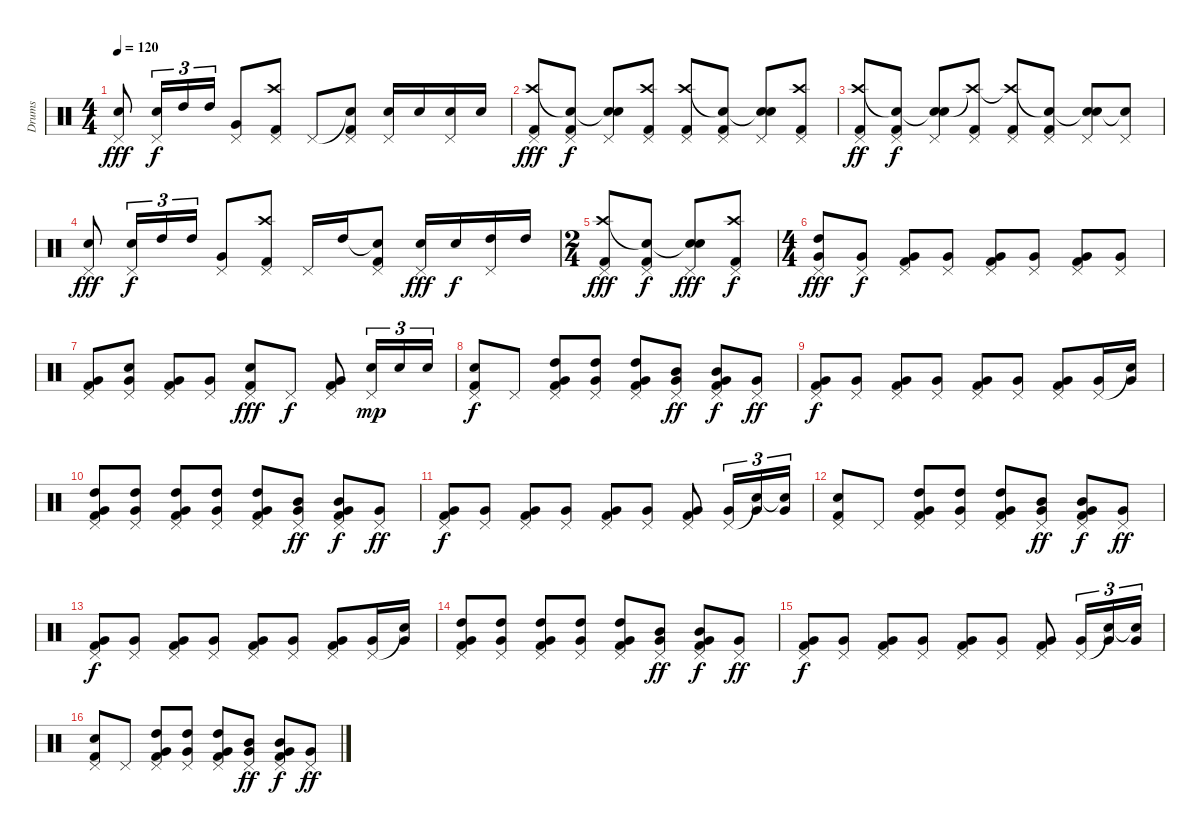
\track ("Drums" "Drums") {instrument percussion}
\staff {score}
\articulation defaults
\ts (4 4)
\tempo 120
\clef neutral
\ks c
("Pedal Hi-Hat (hit)" "Electric Snare (hit)").8{dy fff} ("Pedal Hi-Hat (hit)" "Electric Snare (hit)").16{tu (3 2) dy f} "High Tom (hit)".16{tu (3 2)} "High Tom (hit)".16{tu (3 2)} ("Pedal Hi-Hat (hit)" "Very Low Tom (hit)").8 ("Crash high (hit)" "Pedal Hi-Hat (hit)" "Kick (hit) 2").8 "Pedal Hi-Hat (hit)".8 ("Snare (hit)"{t} "Pedal Hi-Hat (hit)" "Kick (hit) 2").8 ("Pedal Hi-Hat (hit)" "Electric Snare (hit)").16 "Electric Snare (hit)".16 ("Pedal Hi-Hat (hit)" "Electric Snare (hit)").16 "Electric Snare (hit)".16 |
("Crash high (hit)" "Pedal Hi-Hat (hit)" "Kick (hit) 2").8{dy fff} ("Snare (hit)"{t} "Pedal Hi-Hat (hit)" "Kick (hit) 2").8{dy f} ("Snare (hit)"{t} "Pedal Hi-Hat (hit)" "Electric Snare (hit)").8 ("Crash high (hit)" "Pedal Hi-Hat (hit)" "Kick (hit) 2").8 ("Crash high (hit)" "Pedal Hi-Hat (hit)" "Kick (hit) 2").8 ("Snare (hit)"{t} "Pedal Hi-Hat (hit)" "Kick (hit) 2").8 ("Snare (hit)"{t} "Pedal Hi-Hat (hit)" "Electric Snare (hit)").8 ("Crash high (hit)" "Pedal Hi-Hat (hit)" "Kick (hit) 2").8 |
("Crash high (hit)" "Pedal Hi-Hat (hit)" "Kick (hit) 2").8{dy ff} ("Snare (hit)"{t} "Pedal Hi-Hat (hit)" "Kick (hit) 2").8{dy f} ("Snare (hit)"{t} "Pedal Hi-Hat (hit)" "Electric Snare (hit)").8 ("Crash high (hit)"{t} "Pedal Hi-Hat (hit)" "Kick (hit) 2").8 ("Crash high (hit)"{t} "Pedal Hi-Hat (hit)" "Kick (hit) 2").8 ("Snare (hit)"{t} "Pedal Hi-Hat (hit)" "Kick (hit) 2").8 ("Snare (hit)"{t} "Pedal Hi-Hat (hit)" "Electric Snare (hit)").8 ("Snare (hit)"{t} "Pedal Hi-Hat (hit)").8 |
("Pedal Hi-Hat (hit)" "Electric Snare (hit)").8{dy fff} ("Pedal Hi-Hat (hit)" "Electric Snare (hit)").16{tu (3 2) dy f} "High Tom (hit)".16{tu (3 2)} "High Tom (hit)".16{tu (3 2)} ("Pedal Hi-Hat (hit)" "Very Low Tom (hit)").8 ("Crash high (hit)" "Pedal Hi-Hat (hit)" "Kick (hit) 2").8 "Pedal Hi-Hat (hit)".16 "High Tom (hit)".16 ("Snare (hit)"{t} "Pedal Hi-Hat (hit)" "Kick (hit) 2").8 ("Pedal Hi-Hat (hit)" "Electric Snare (hit)").16{dy fff} "Electric Snare (hit)".16{dy f} ("Pedal Hi-Hat (hit)" "High Tom (hit)").16 "High Tom (hit)".16 |
\ts (2 4)
("Crash high (hit)" "Pedal Hi-Hat (hit)" "Kick (hit) 2").8{dy fff} ("Snare (hit)"{t} "Pedal Hi-Hat (hit)" "Kick (hit) 2").8{dy f} ("Snare (hit)"{t} "Pedal Hi-Hat (hit)" "Electric Snare (hit)").8{dy fff} ("Crash high (hit)" "Pedal Hi-Hat (hit)" "Kick (hit) 2").8{dy f} |
\ts (4 4)
("Pedal Hi-Hat (hit)" "High Tom (hit)" "Very Low Tom (hit)").8{dy fff} ("Pedal Hi-Hat (hit)" "Very Low Tom (hit)").8{dy f} ("Pedal Hi-Hat (hit)" "Very Low Tom (hit)" "Kick (hit) 2").8 ("Pedal Hi-Hat (hit)" "Very Low Tom (hit)").8 ("Pedal Hi-Hat (hit)" "Very Low Tom (hit)" "Kick (hit) 2").8 ("Pedal Hi-Hat (hit)" "Very Low Tom (hit)").8 ("Pedal Hi-Hat (hit)" "Very Low Tom (hit)" "Kick (hit) 2").8 ("Pedal Hi-Hat (hit)" "Very Low Tom (hit)").8 |
("Pedal Hi-Hat (hit)" "Very Low Tom (hit)" "Kick (hit) 2").8 ("Pedal Hi-Hat (hit)" "Electric Snare (hit)" "Very Low Tom (hit)").8 ("Pedal Hi-Hat (hit)" "Very Low Tom (hit)" "Kick (hit) 2").8 ("Pedal Hi-Hat (hit)" "Very Low Tom (hit)").8 ("Pedal Hi-Hat (hit)" "Electric Snare (hit)" "Kick (hit) 2").8{dy fff} "Pedal Hi-Hat (hit)".8{dy f} ("Pedal Hi-Hat (hit)" "Very Low Tom (hit)" "Kick (hit) 2").8 ("Pedal Hi-Hat (hit)" "Electric Snare (hit)").16{tu (3 2) dy mp} "Electric Snare (hit)".16{tu (3 2)} "Electric Snare (hit)".16{tu (3 2)} |
("Pedal Hi-Hat (hit)" "Electric Snare (hit)" "Kick (hit) 2").8{dy f} "Pedal Hi-Hat (hit)".8 ("Pedal Hi-Hat (hit)" "High Tom (hit)" "Very Low Tom (hit)" "Kick (hit) 2").8 ("Pedal Hi-Hat (hit)" "High Tom (hit)" "Very Low Tom (hit)").8 ("Pedal Hi-Hat (hit)" "High Tom (hit)" "Very Low Tom (hit)" "Kick (hit) 2").8 ("Pedal Hi-Hat (hit)" "Mid Tom (hit)" "Very Low Tom (hit)").8{dy ff} ("Pedal Hi-Hat (hit)" "Mid Tom (hit)" "Very Low Tom (hit)" "Kick (hit) 2").8{dy f} ("Pedal Hi-Hat (hit)" "Very Low Tom (hit)").8{dy ff} |
("Pedal Hi-Hat (hit)" "Very Low Tom (hit)" "Kick (hit) 2").8{dy f} ("Pedal Hi-Hat (hit)" "Very Low Tom (hit)").8 ("Pedal Hi-Hat (hit)" "Very Low Tom (hit)" "Kick (hit) 2").8 ("Pedal Hi-Hat (hit)" "Very Low Tom (hit)").8 ("Pedal Hi-Hat (hit)" "Very Low Tom (hit)" "Kick (hit) 2").8 ("Pedal Hi-Hat (hit)" "Very Low Tom (hit)").8 ("Pedal Hi-Hat (hit)" "Very Low Tom (hit)" "Kick (hit) 2").8 ("Pedal Hi-Hat (hit)" "Very Low Tom (hit)").16 ("Snare (hit)"{t} "Very Low Tom (hit)").16 |
("Pedal Hi-Hat (hit)" "High Tom (hit)" "Very Low Tom (hit)" "Kick (hit) 2").8 ("Pedal Hi-Hat (hit)" "High Tom (hit)" "Very Low Tom (hit)").8 ("Pedal Hi-Hat (hit)" "High Tom (hit)" "Very Low Tom (hit)" "Kick (hit) 2").8 ("Pedal Hi-Hat (hit)" "High Tom (hit)" "Very Low Tom (hit)").8 ("Pedal Hi-Hat (hit)" "High Tom (hit)" "Very Low Tom (hit)" "Kick (hit) 2").8 ("Pedal Hi-Hat (hit)" "Mid Tom (hit)" "Very Low Tom (hit)").8{dy ff} ("Pedal Hi-Hat (hit)" "Mid Tom (hit)" "Very Low Tom (hit)" "Kick (hit) 2").8{dy f} ("Pedal Hi-Hat (hit)" "Very Low Tom (hit)").8{dy ff} |
("Pedal Hi-Hat (hit)" "Very Low Tom (hit)" "Kick (hit) 2").8{dy f} ("Pedal Hi-Hat (hit)" "Very Low Tom (hit)").8 ("Pedal Hi-Hat (hit)" "Very Low Tom (hit)" "Kick (hit) 2").8 ("Pedal Hi-Hat (hit)" "Very Low Tom (hit)").8 ("Pedal Hi-Hat (hit)" "Very Low Tom (hit)" "Kick (hit) 2").8 ("Pedal Hi-Hat (hit)" "Very Low Tom (hit)").8 ("Pedal Hi-Hat (hit)" "Very Low Tom (hit)" "Kick (hit) 2").8 ("Pedal Hi-Hat (hit)" "Very Low Tom (hit)").16{tu (3 2)} ("Snare (hit)"{t} "Very Low Tom (hit)").16{tu (3 2)} ("Snare (hit)"{t} "Very Low Tom (hit)").16{tu (3 2)} |
("Pedal Hi-Hat (hit)" "Electric Snare (hit)" "Kick (hit) 2").8 "Pedal Hi-Hat (hit)".8 ("Pedal Hi-Hat (hit)" "High Tom (hit)" "Very Low Tom (hit)" "Kick (hit) 2").8 ("Pedal Hi-Hat (hit)" "High Tom (hit)" "Very Low Tom (hit)").8 ("Pedal Hi-Hat (hit)" "High Tom (hit)" "Very Low Tom (hit)" "Kick (hit) 2").8 ("Pedal Hi-Hat (hit)" "Mid Tom (hit)" "Very Low Tom (hit)").8{dy ff} ("Pedal Hi-Hat (hit)" "Mid Tom (hit)" "Very Low Tom (hit)" "Kick (hit) 2").8{dy f} ("Pedal Hi-Hat (hit)" "Very Low Tom (hit)").8{dy ff} |
("Pedal Hi-Hat (hit)" "Very Low Tom (hit)" "Kick (hit) 2").8{dy f} ("Pedal Hi-Hat (hit)" "Very Low Tom (hit)").8 ("Pedal Hi-Hat (hit)" "Very Low Tom (hit)" "Kick (hit) 2").8 ("Pedal Hi-Hat (hit)" "Very Low Tom (hit)").8 ("Pedal Hi-Hat (hit)" "Very Low Tom (hit)" "Kick (hit) 2").8 ("Pedal Hi-Hat (hit)" "Very Low Tom (hit)").8 ("Pedal Hi-Hat (hit)" "Very Low Tom (hit)" "Kick (hit) 2").8 ("Pedal Hi-Hat (hit)" "Very Low Tom (hit)").16 ("Snare (hit)"{t} "Very Low Tom (hit)").16 |
("Pedal Hi-Hat (hit)" "High Tom (hit)" "Very Low Tom (hit)" "Kick (hit) 2").8 ("Pedal Hi-Hat (hit)" "High Tom (hit)" "Very Low Tom (hit)").8 ("Pedal Hi-Hat (hit)" "High Tom (hit)" "Very Low Tom (hit)" "Kick (hit) 2").8 ("Pedal Hi-Hat (hit)" "High Tom (hit)" "Very Low Tom (hit)").8 ("Pedal Hi-Hat (hit)" "High Tom (hit)" "Very Low Tom (hit)" "Kick (hit) 2").8 ("Pedal Hi-Hat (hit)" "Mid Tom (hit)" "Very Low Tom (hit)").8{dy ff} ("Pedal Hi-Hat (hit)" "Mid Tom (hit)" "Very Low Tom (hit)" "Kick (hit) 2").8{dy f} ("Pedal Hi-Hat (hit)" "Very Low Tom (hit)").8{dy ff} |
("Pedal Hi-Hat (hit)" "Very Low Tom (hit)" "Kick (hit) 2").8{dy f} ("Pedal Hi-Hat (hit)" "Very Low Tom (hit)").8 ("Pedal Hi-Hat (hit)" "Very Low Tom (hit)" "Kick (hit) 2").8 ("Pedal Hi-Hat (hit)" "Very Low Tom (hit)").8 ("Pedal Hi-Hat (hit)" "Very Low Tom (hit)" "Kick (hit) 2").8 ("Pedal Hi-Hat (hit)" "Very Low Tom (hit)").8 ("Pedal Hi-Hat (hit)" "Very Low Tom (hit)" "Kick (hit) 2").8 ("Pedal Hi-Hat (hit)" "Very Low Tom (hit)").16{tu (3 2)} ("Snare (hit)"{t} "Very Low Tom (hit)").16{tu (3 2)} ("Snare (hit)"{t} "Very Low Tom (hit)").16{tu (3 2)} |
("Pedal Hi-Hat (hit)" "Electric Snare (hit)" "Kick (hit) 2").8 "Pedal Hi-Hat (hit)".8 ("Pedal Hi-Hat (hit)" "High Tom (hit)" "Very Low Tom (hit)" "Kick (hit) 2").8 ("Pedal Hi-Hat (hit)" "High Tom (hit)" "Very Low Tom (hit)").8 ("Pedal Hi-Hat (hit)" "High Tom (hit)" "Very Low Tom (hit)" "Kick (hit) 2").8 ("Pedal Hi-Hat (hit)" "Mid Tom (hit)" "Very Low Tom (hit)").8{dy ff} ("Pedal Hi-Hat (hit)" "Mid Tom (hit)" "Very Low Tom (hit)" "Kick (hit) 2").8{dy f} ("Pedal Hi-Hat (hit)" "Very Low Tom (hit)").8{dy ff}
